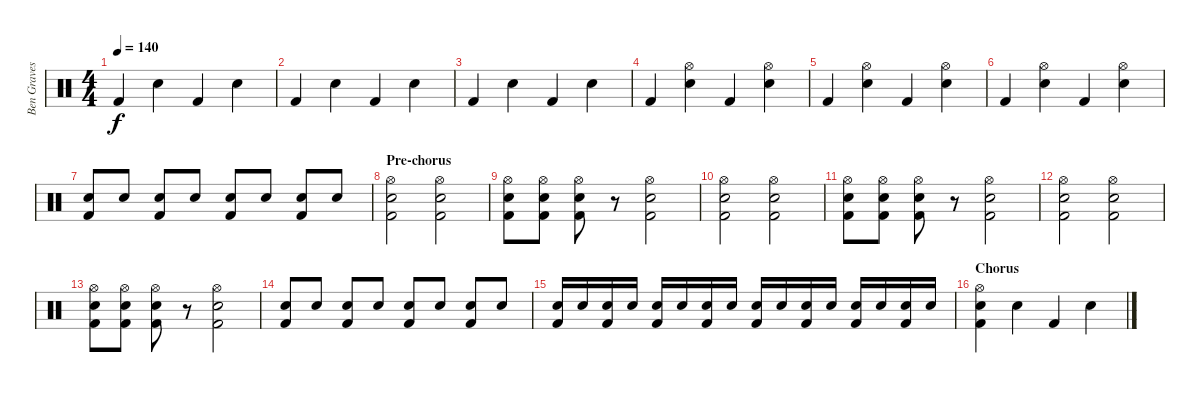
\track ("Ben Graves" "Ben Graves") {instrument percussion}
\staff {score}
\articulation defaults
\ts (4 4)
\tempo 140
\clef neutral
\ks c "Kick (hit) 2".4{dy f} "Electric Snare (hit)".4 "Kick (hit) 2".4 "Electric Snare (hit)".4
|
"Kick (hit) 2".4 "Electric Snare (hit)".4 "Kick (hit) 2".4 "Electric Snare (hit)".4 |
"Kick (hit) 2".4 "Electric Snare (hit)".4 "Kick (hit) 2".4 "Electric Snare (hit)".4 |
"Kick (hit) 2".4 ("Electric Snare (hit)" "Hi-Hat (open)").4 "Kick (hit) 2".4 ("Electric Snare (hit)" "Hi-Hat (open)").4 |
"Kick (hit) 2".4 ("Electric Snare (hit)" "Hi-Hat (open)").4 "Kick (hit) 2".4 ("Electric Snare (hit)" "Hi-Hat (open)").4 |
"Kick (hit) 2".4 ("Electric Snare (hit)" "Hi-Hat (open)").4 "Kick (hit) 2".4 ("Electric Snare (hit)" "Hi-Hat (open)").4 |
("Kick (hit) 2" "Electric Snare (hit)").8 "Electric Snare (hit)".8 ("Kick (hit) 2" "Electric Snare (hit)").8 "Electric Snare (hit)".8 ("Kick (hit) 2" "Electric Snare (hit)").8 "Electric Snare (hit)".8 ("Kick (hit) 2" "Electric Snare (hit)").8 "Electric Snare (hit)".8 |
\section ("" "Pre-chorus")
("Kick (hit) 2" "Electric Snare (hit)" "Hi-Hat (open)").2 ("Kick (hit) 2" "Electric Snare (hit)" "Hi-Hat (open)").2 |
("Kick (hit) 2" "Electric Snare (hit)" "Hi-Hat (open)").8 ("Kick (hit) 2" "Electric Snare (hit)" "Hi-Hat (open)").8 ("Kick (hit) 2" "Electric Snare (hit)" "Hi-Hat (open)").8 r.8 ("Kick (hit) 2" "Electric Snare (hit)" "Hi-Hat (open)").2 |
("Kick (hit) 2" "Electric Snare (hit)" "Hi-Hat (open)").2 ("Kick (hit) 2" "Electric Snare (hit)" "Hi-Hat (open)").2 |
("Kick (hit) 2" "Electric Snare (hit)" "Hi-Hat (open)").8 ("Kick (hit) 2" "Electric Snare (hit)" "Hi-Hat (open)").8 ("Kick (hit) 2" "Electric Snare (hit)" "Hi-Hat (open)").8 r.8 ("Kick (hit) 2" "Electric Snare (hit)" "Hi-Hat (open)").2 |
("Kick (hit) 2" "Electric Snare (hit)" "Hi-Hat (open)").2 ("Kick (hit) 2" "Electric Snare (hit)" "Hi-Hat (open)").2 |
("Kick (hit) 2" "Electric Snare (hit)" "Hi-Hat (open)").8 ("Kick (hit) 2" "Electric Snare (hit)" "Hi-Hat (open)").8 ("Kick (hit) 2" "Electric Snare (hit)" "Hi-Hat (open)").8 r.8 ("Kick (hit) 2" "Electric Snare (hit)" "Hi-Hat (open)").2 |
("Kick (hit) 2" "Electric Snare (hit)").8 "Electric Snare (hit)".8 ("Kick (hit) 2" "Electric Snare (hit)").8 "Electric Snare (hit)".8 ("Kick (hit) 2" "Electric Snare (hit)").8 "Electric Snare (hit)".8 ("Kick (hit) 2" "Electric Snare (hit)").8 "Electric Snare (hit)".8 |
("Kick (hit) 2" "Electric Snare (hit)").16 "Electric Snare (hit)".16 ("Kick (hit) 2" "Electric Snare (hit)").16 "Electric Snare (hit)".16 ("Kick (hit) 2" "Electric Snare (hit)").16 "Electric Snare (hit)".16 ("Kick (hit) 2" "Electric Snare (hit)").16 "Electric Snare (hit)".16 ("Kick (hit) 2" "Electric Snare (hit)").16 "Electric Snare (hit)".16 ("Kick (hit) 2" "Electric Snare (hit)").16 "Electric Snare (hit)".16 ("Kick (hit) 2" "Electric Snare (hit)").16 "Electric Snare (hit)".16 ("Kick (hit) 2" "Electric Snare (hit)").16 "Electric Snare (hit)".16 |
\section ("" "Chorus")
("Kick (hit) 2" "Electric Snare (hit)" "Hi-Hat (open)").4 "Electric Snare (hit)".4 "Kick (hit) 2".4 "Electric Snare (hit)".4
